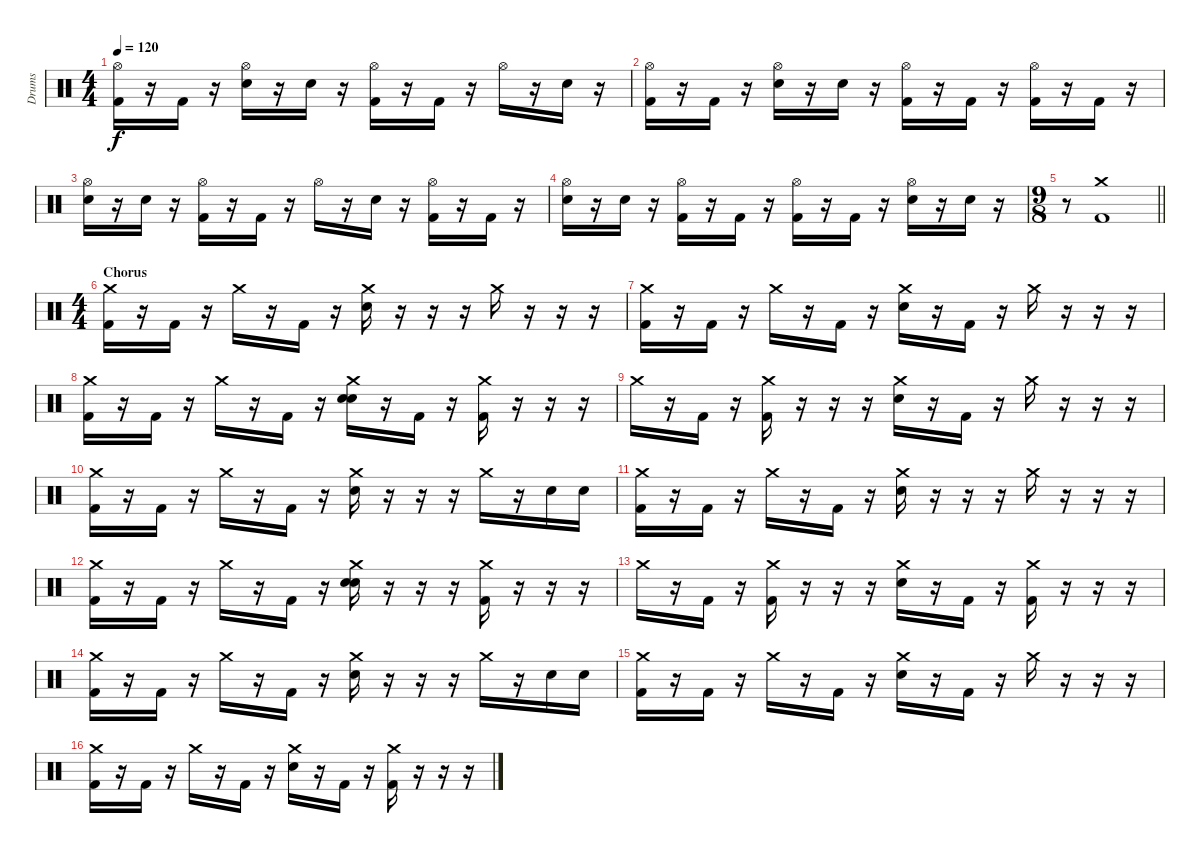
\track ("Drums" "Drums") {instrument percussion}
\staff {score}
\articulation defaults
\ts (4 4)
\tempo 120
\clef neutral
\ks c
("Hi-Hat (open)" "Kick (hit) 2").16{dy f} r.16 "Kick (hit) 2".16 r.16 ("Hi-Hat (open)" "Electric Snare (hit)").16 r.16 "Electric Snare (hit)".16 r.16 ("Hi-Hat (open)" "Kick (hit) 2").16 r.16 "Kick (hit) 2".16 r.16 "Hi-Hat (open)".16 r.16 "Electric Snare (hit)".16 r.16 |
("Hi-Hat (open)" "Kick (hit) 2").16 r.16 "Kick (hit) 2".16 r.16 ("Hi-Hat (open)" "Electric Snare (hit)").16 r.16 "Electric Snare (hit)".16 r.16 ("Hi-Hat (open)" "Kick (hit) 2").16 r.16 "Kick (hit) 2".16 r.16 ("Hi-Hat (open)" "Kick (hit) 2").16 r.16 "Kick (hit) 2".16 r.16 |
("Hi-Hat (open)" "Electric Snare (hit)").16 r.16 "Electric Snare (hit)".16 r.16 ("Hi-Hat (open)" "Kick (hit) 2").16 r.16 "Kick (hit) 2".16 r.16 "Hi-Hat (open)".16 r.16 "Electric Snare (hit)".16 r.16 ("Hi-Hat (open)" "Kick (hit) 2").16 r.16 "Kick (hit) 2".16 r.16 |
("Hi-Hat (open)" "Electric Snare (hit)").16 r.16 "Electric Snare (hit)".16 r.16 ("Hi-Hat (open)" "Kick (hit) 2").16 r.16 "Kick (hit) 2".16 r.16 ("Hi-Hat (open)" "Kick (hit) 2").16 r.16 "Kick (hit) 2".16 r.16 ("Hi-Hat (open)" "Electric Snare (hit)").16 r.16 "Electric Snare (hit)".16 r.16 |
\ts (9 8)
\barLineRight lightlight
r.8 ("Crash medium (hit)" "Kick (hit) 2").1 |
\ts (4 4)
\section ("" "Chorus")
("Crash medium (hit)" "Kick (hit) 2").16 r.16 "Kick (hit) 2".16 r.16 "Crash medium (hit)".16 r.16 "Kick (hit) 2".16 r.16 ("Crash medium (hit)" "Electric Snare (hit)").16 r.16 r.16 r.16 "Crash medium (hit)".16 r.16 r.16 r.16 |
("Crash medium (hit)" "Kick (hit) 2").16 r.16 "Kick (hit) 2".16 r.16 "Crash medium (hit)".16 r.16 "Kick (hit) 2".16 r.16 ("Crash medium (hit)" "Electric Snare (hit)").16 r.16 "Kick (hit) 2".16 r.16 "Crash medium (hit)".16 r.16 r.16 r.16 |
("Crash medium (hit)" "Kick (hit) 2").16 r.16 "Kick (hit) 2".16 r.16 "Crash medium (hit)".16 r.16 "Kick (hit) 2".16 r.16 ("Electric Snare (hit)" "Crash medium (hit)" "Electric Snare (hit)").16 r.16 "Kick (hit) 2".16 r.16 ("Crash medium (hit)" "Kick (hit) 2").16 r.16 r.16 r.16 |
"Crash medium (hit)".16 r.16 "Kick (hit) 2".16 r.16 ("Crash medium (hit)" "Kick (hit) 2").16 r.16 r.16 r.16 ("Crash medium (hit)" "Electric Snare (hit)").16 r.16 "Kick (hit) 2".16 r.16 "Crash medium (hit)".16 r.16 r.16 r.16 |
("Crash medium (hit)" "Kick (hit) 2").16 r.16 "Kick (hit) 2".16 r.16 "Crash medium (hit)".16 r.16 "Kick (hit) 2".16 r.16 ("Crash medium (hit)" "Electric Snare (hit)").16 r.16 r.16 r.16 "Crash medium (hit)".16 r.16 "Electric Snare (hit)".16 "Electric Snare (hit)".16 |
("Crash medium (hit)" "Kick (hit) 2").16 r.16 "Kick (hit) 2".16 r.16 "Crash medium (hit)".16 r.16 "Kick (hit) 2".16 r.16 ("Crash medium (hit)" "Electric Snare (hit)").16 r.16 r.16 r.16 "Crash medium (hit)".16 r.16 r.16 r.16 |
("Crash medium (hit)" "Kick (hit) 2").16 r.16 "Kick (hit) 2".16 r.16 "Crash medium (hit)".16 r.16 "Kick (hit) 2".16 r.16 ("Electric Snare (hit)" "Crash medium (hit)" "Electric Snare (hit)").16 r.16 r.16 r.16 ("Crash medium (hit)" "Kick (hit) 2").16 r.16 r.16 r.16 |
"Crash medium (hit)".16 r.16 "Kick (hit) 2".16 r.16 ("Crash medium (hit)" "Kick (hit) 2").16 r.16 r.16 r.16 ("Crash medium (hit)" "Electric Snare (hit)").16 r.16 "Kick (hit) 2".16 r.16 ("Crash medium (hit)" "Kick (hit) 2").16 r.16 r.16 r.16 |
("Crash medium (hit)" "Kick (hit) 2").16 r.16 "Kick (hit) 2".16 r.16 "Crash medium (hit)".16 r.16 "Kick (hit) 2".16 r.16 ("Crash medium (hit)" "Electric Snare (hit)").16 r.16 r.16 r.16 "Crash medium (hit)".16 r.16 "Electric Snare (hit)".16 "Electric Snare (hit)".16 |
("Crash medium (hit)" "Kick (hit) 2").16 r.16 "Kick (hit) 2".16 r.16 "Crash medium (hit)".16 r.16 "Kick (hit) 2".16 r.16 ("Crash medium (hit)" "Electric Snare (hit)").16 r.16 "Kick (hit) 2".16 r.16 "Crash medium (hit)".16 r.16 r.16 r.16 |
("Crash medium (hit)" "Kick (hit) 2").16 r.16 "Kick (hit) 2".16 r.16 "Crash medium (hit)".16 r.16 "Kick (hit) 2".16 r.16 ("Crash medium (hit)" "Electric Snare (hit)").16 r.16 "Kick (hit) 2".16 r.16 ("Crash medium (hit)" "Kick (hit) 2").16 r.16 r.16 r.16
